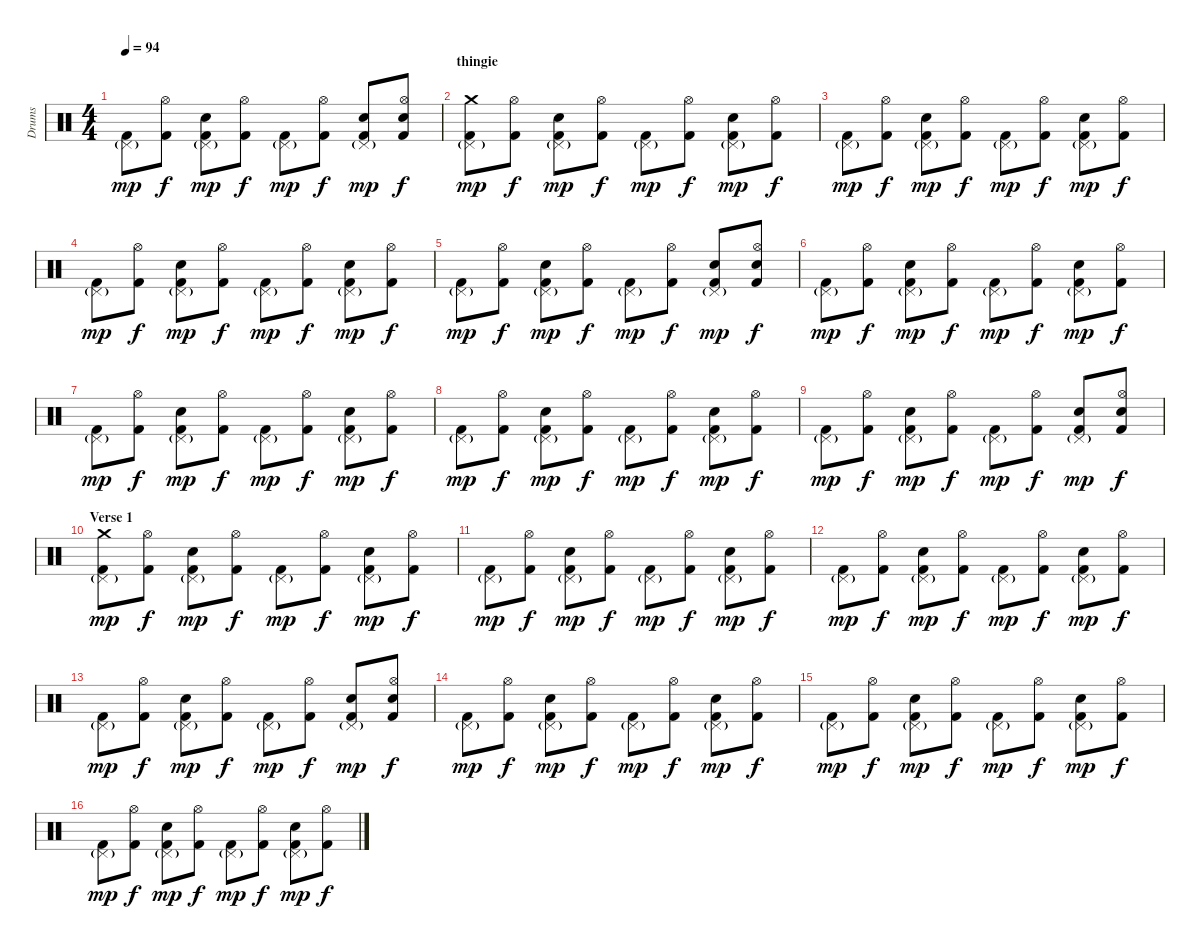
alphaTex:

\track ("Drums" "Drums") {instrument percussion}
\staff {score}
\articulation defaults
\ts (4 4)
\tempo 94
\clef neutral
\ks c
("Pedal Hi-Hat (hit)"{g} "Kick (hit) 2").8{dy mp} ("Hi-Hat (open)" "Kick (hit) 2").8{dy f} ("Pedal Hi-Hat (hit)"{g} "Snare (hit) 2" "Kick (hit) 2").8{dy mp} ("Hi-Hat (open)" "Kick (hit) 2").8{dy f} ("Pedal Hi-Hat (hit)"{g} "Kick (hit) 2").8{dy mp} ("Hi-Hat (open)" "Kick (hit) 2").8{dy f} ("Pedal Hi-Hat (hit)"{g} "Snare (hit) 2" "Kick (hit) 2").8{dy mp} ("Hi-Hat (open)" "Snare (hit) 2" "Kick (hit) 2").8{dy f} |
\section ("" "thingie")
("Pedal Hi-Hat (hit)"{g} "Crash medium (hit)" "Kick (hit) 2").8{dy mp} ("Hi-Hat (open)" "Kick (hit) 2").8{dy f} ("Pedal Hi-Hat (hit)"{g} "Snare (hit) 2" "Kick (hit) 2").8{dy mp} ("Hi-Hat (open)" "Kick (hit) 2").8{dy f} ("Pedal Hi-Hat (hit)"{g} "Kick (hit) 2").8{dy mp} ("Hi-Hat (open)" "Kick (hit) 2").8{dy f} ("Pedal Hi-Hat (hit)"{g} "Snare (hit) 2" "Kick (hit) 2").8{dy mp} ("Hi-Hat (open)" "Kick (hit) 2").8{dy f} |
("Pedal Hi-Hat (hit)"{g} "Kick (hit) 2").8{dy mp} ("Hi-Hat (open)" "Kick (hit) 2").8{dy f} ("Pedal Hi-Hat (hit)"{g} "Snare (hit) 2" "Kick (hit) 2").8{dy mp} ("Hi-Hat (open)" "Kick (hit) 2").8{dy f} ("Pedal Hi-Hat (hit)"{g} "Kick (hit) 2").8{dy mp} ("Hi-Hat (open)" "Kick (hit) 2").8{dy f} ("Pedal Hi-Hat (hit)"{g} "Snare (hit) 2" "Kick (hit) 2").8{dy mp} ("Hi-Hat (open)" "Kick (hit) 2").8{dy f} |
("Pedal Hi-Hat (hit)"{g} "Kick (hit) 2").8{dy mp} ("Hi-Hat (open)" "Kick (hit) 2").8{dy f} ("Pedal Hi-Hat (hit)"{g} "Snare (hit) 2" "Kick (hit) 2").8{dy mp} ("Hi-Hat (open)" "Kick (hit) 2").8{dy f} ("Pedal Hi-Hat (hit)"{g} "Kick (hit) 2").8{dy mp} ("Hi-Hat (open)" "Kick (hit) 2").8{dy f} ("Pedal Hi-Hat (hit)"{g} "Snare (hit) 2" "Kick (hit) 2").8{dy mp} ("Hi-Hat (open)" "Kick (hit) 2").8{dy f} |
("Pedal Hi-Hat (hit)"{g} "Kick (hit) 2").8{dy mp} ("Hi-Hat (open)" "Kick (hit) 2").8{dy f} ("Pedal Hi-Hat (hit)"{g} "Snare (hit) 2" "Kick (hit) 2").8{dy mp} ("Hi-Hat (open)" "Kick (hit) 2").8{dy f} ("Pedal Hi-Hat (hit)"{g} "Kick (hit) 2").8{dy mp} ("Hi-Hat (open)" "Kick (hit) 2").8{dy f} ("Pedal Hi-Hat (hit)"{g} "Snare (hit) 2" "Kick (hit) 2").8{dy mp} ("Hi-Hat (open)" "Snare (hit) 2" "Kick (hit) 2").8{dy f} |
("Pedal Hi-Hat (hit)"{g} "Kick (hit) 2").8{dy mp} ("Hi-Hat (open)" "Kick (hit) 2").8{dy f} ("Pedal Hi-Hat (hit)"{g} "Snare (hit) 2" "Kick (hit) 2").8{dy mp} ("Hi-Hat (open)" "Kick (hit) 2").8{dy f} ("Pedal Hi-Hat (hit)"{g} "Kick (hit) 2").8{dy mp} ("Hi-Hat (open)" "Kick (hit) 2").8{dy f} ("Pedal Hi-Hat (hit)"{g} "Snare (hit) 2" "Kick (hit) 2").8{dy mp} ("Hi-Hat (open)" "Kick (hit) 2").8{dy f} |
("Pedal Hi-Hat (hit)"{g} "Kick (hit) 2").8{dy mp} ("Hi-Hat (open)" "Kick (hit) 2").8{dy f} ("Pedal Hi-Hat (hit)"{g} "Snare (hit) 2" "Kick (hit) 2").8{dy mp} ("Hi-Hat (open)" "Kick (hit) 2").8{dy f} ("Pedal Hi-Hat (hit)"{g} "Kick (hit) 2").8{dy mp} ("Hi-Hat (open)" "Kick (hit) 2").8{dy f} ("Pedal Hi-Hat (hit)"{g} "Snare (hit) 2" "Kick (hit) 2").8{dy mp} ("Hi-Hat (open)" "Kick (hit) 2").8{dy f} |
("Pedal Hi-Hat (hit)"{g} "Kick (hit) 2").8{dy mp} ("Hi-Hat (open)" "Kick (hit) 2").8{dy f} ("Pedal Hi-Hat (hit)"{g} "Snare (hit) 2" "Kick (hit) 2").8{dy mp} ("Hi-Hat (open)" "Kick (hit) 2").8{dy f} ("Pedal Hi-Hat (hit)"{g} "Kick (hit) 2").8{dy mp} ("Hi-Hat (open)" "Kick (hit) 2").8{dy f} ("Pedal Hi-Hat (hit)"{g} "Snare (hit) 2" "Kick (hit) 2").8{dy mp} ("Hi-Hat (open)" "Kick (hit) 2").8{dy f} |
("Pedal Hi-Hat (hit)"{g} "Kick (hit) 2").8{dy mp} ("Hi-Hat (open)" "Kick (hit) 2").8{dy f} ("Pedal Hi-Hat (hit)"{g} "Snare (hit) 2" "Kick (hit) 2").8{dy mp} ("Hi-Hat (open)" "Kick (hit) 2").8{dy f} ("Pedal Hi-Hat (hit)"{g} "Kick (hit) 2").8{dy mp} ("Hi-Hat (open)" "Kick (hit) 2").8{dy f} ("Pedal Hi-Hat (hit)"{g} "Snare (hit) 2" "Kick (hit) 2").8{dy mp} ("Hi-Hat (open)" "Snare (hit) 2" "Kick (hit) 2").8{dy f} |
\section ("" "Verse 1")
("Pedal Hi-Hat (hit)"{g} "Crash medium (hit)" "Kick (hit) 2").8{dy mp} ("Hi-Hat (open)" "Kick (hit) 2").8{dy f} ("Pedal Hi-Hat (hit)"{g} "Snare (hit) 2" "Kick (hit) 2").8{dy mp} ("Hi-Hat (open)" "Kick (hit) 2").8{dy f} ("Pedal Hi-Hat (hit)"{g} "Kick (hit) 2").8{dy mp} ("Hi-Hat (open)" "Kick (hit) 2").8{dy f} ("Pedal Hi-Hat (hit)"{g} "Snare (hit) 2" "Kick (hit) 2").8{dy mp} ("Hi-Hat (open)" "Kick (hit) 2").8{dy f} |
("Pedal Hi-Hat (hit)"{g} "Kick (hit) 2").8{dy mp} ("Hi-Hat (open)" "Kick (hit) 2").8{dy f} ("Pedal Hi-Hat (hit)"{g} "Snare (hit) 2" "Kick (hit) 2").8{dy mp} ("Hi-Hat (open)" "Kick (hit) 2").8{dy f} ("Pedal Hi-Hat (hit)"{g} "Kick (hit) 2").8{dy mp} ("Hi-Hat (open)" "Kick (hit) 2").8{dy f} ("Pedal Hi-Hat (hit)"{g} "Snare (hit) 2" "Kick (hit) 2").8{dy mp} ("Hi-Hat (open)" "Kick (hit) 2").8{dy f} |
("Pedal Hi-Hat (hit)"{g} "Kick (hit) 2").8{dy mp} ("Hi-Hat (open)" "Kick (hit) 2").8{dy f} ("Pedal Hi-Hat (hit)"{g} "Snare (hit) 2" "Kick (hit) 2").8{dy mp} ("Hi-Hat (open)" "Kick (hit) 2").8{dy f} ("Pedal Hi-Hat (hit)"{g} "Kick (hit) 2").8{dy mp} ("Hi-Hat (open)" "Kick (hit) 2").8{dy f} ("Pedal Hi-Hat (hit)"{g} "Snare (hit) 2" "Kick (hit) 2").8{dy mp} ("Hi-Hat (open)" "Kick (hit) 2").8{dy f} |
("Pedal Hi-Hat (hit)"{g} "Kick (hit) 2").8{dy mp} ("Hi-Hat (open)" "Kick (hit) 2").8{dy f} ("Pedal Hi-Hat (hit)"{g} "Snare (hit) 2" "Kick (hit) 2").8{dy mp} ("Hi-Hat (open)" "Kick (hit) 2").8{dy f} ("Pedal Hi-Hat (hit)"{g} "Kick (hit) 2").8{dy mp} ("Hi-Hat (open)" "Kick (hit) 2").8{dy f} ("Pedal Hi-Hat (hit)"{g} "Snare (hit) 2" "Kick (hit) 2").8{dy mp} ("Hi-Hat (open)" "Snare (hit) 2" "Kick (hit) 2").8{dy f} |
("Pedal Hi-Hat (hit)"{g} "Kick (hit) 2").8{dy mp} ("Hi-Hat (open)" "Kick (hit) 2").8{dy f} ("Pedal Hi-Hat (hit)"{g} "Snare (hit) 2" "Kick (hit) 2").8{dy mp} ("Hi-Hat (open)" "Kick (hit) 2").8{dy f} ("Pedal Hi-Hat (hit)"{g} "Kick (hit) 2").8{dy mp} ("Hi-Hat (open)" "Kick (hit) 2").8{dy f} ("Pedal Hi-Hat (hit)"{g} "Snare (hit) 2" "Kick (hit) 2").8{dy mp} ("Hi-Hat (open)" "Kick (hit) 2").8{dy f} |
("Pedal Hi-Hat (hit)"{g} "Kick (hit) 2").8{dy mp} ("Hi-Hat (open)" "Kick (hit) 2").8{dy f} ("Pedal Hi-Hat (hit)"{g} "Snare (hit) 2" "Kick (hit) 2").8{dy mp} ("Hi-Hat (open)" "Kick (hit) 2").8{dy f} ("Pedal Hi-Hat (hit)"{g} "Kick (hit) 2").8{dy mp} ("Hi-Hat (open)" "Kick (hit) 2").8{dy f} ("Pedal Hi-Hat (hit)"{g} "Snare (hit) 2" "Kick (hit) 2").8{dy mp} ("Hi-Hat (open)" "Kick (hit) 2").8{dy f} |
("Pedal Hi-Hat (hit)"{g} "Kick (hit) 2").8{dy mp} ("Hi-Hat (open)" "Kick (hit) 2").8{dy f} ("Pedal Hi-Hat (hit)"{g} "Snare (hit) 2" "Kick (hit) 2").8{dy mp} ("Hi-Hat (open)" "Kick (hit) 2").8{dy f} ("Pedal Hi-Hat (hit)"{g} "Kick (hit) 2").8{dy mp} ("Hi-Hat (open)" "Kick (hit) 2").8{dy f} ("Pedal Hi-Hat (hit)"{g} "Snare (hit) 2" "Kick (hit) 2").8{dy mp} ("Hi-Hat (open)" "Kick (hit) 2").8{dy f}
